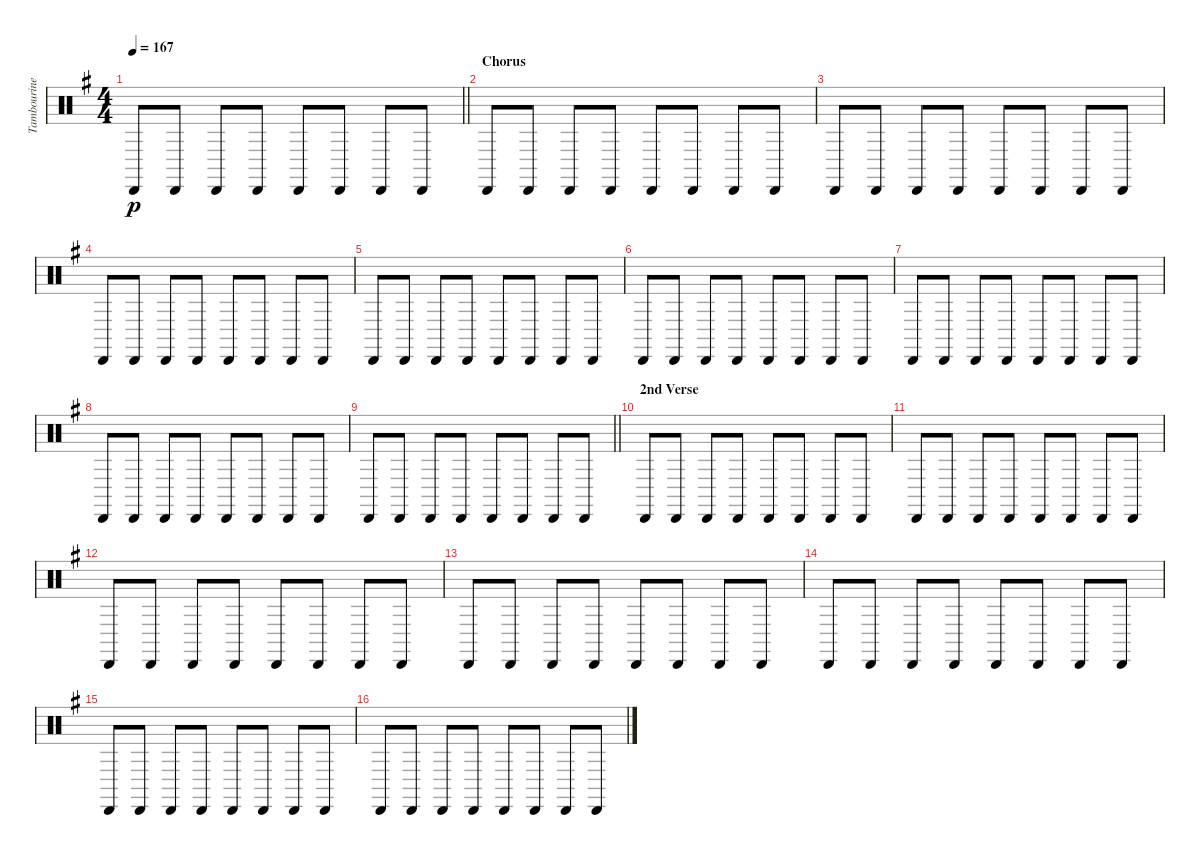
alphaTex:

\track ("Tambourine" "Tambourine") {instrument percussion}
\staff {score}
\articulation defaults
\ts (4 4)
\tempo 167
\clef neutral
\barLineRight lightlight
\ks eminor "Cabasa (hit)".8{dy p} "Cabasa (hit)".8 "Cabasa (hit)".8 "Cabasa (hit)".8 "Cabasa (hit)".8 "Cabasa (hit)".8 "Cabasa (hit)".8 "Cabasa (hit)".8
|
\section ("" "Chorus")
"Cabasa (hit)".8 "Cabasa (hit)".8 "Cabasa (hit)".8 "Cabasa (hit)".8 "Cabasa (hit)".8 "Cabasa (hit)".8 "Cabasa (hit)".8 "Cabasa (hit)".8 |
"Cabasa (hit)".8 "Cabasa (hit)".8 "Cabasa (hit)".8 "Cabasa (hit)".8 "Cabasa (hit)".8 "Cabasa (hit)".8 "Cabasa (hit)".8 "Cabasa (hit)".8 |
"Cabasa (hit)".8 "Cabasa (hit)".8 "Cabasa (hit)".8 "Cabasa (hit)".8 "Cabasa (hit)".8 "Cabasa (hit)".8 "Cabasa (hit)".8 "Cabasa (hit)".8 |
"Cabasa (hit)".8 "Cabasa (hit)".8 "Cabasa (hit)".8 "Cabasa (hit)".8 "Cabasa (hit)".8 "Cabasa (hit)".8 "Cabasa (hit)".8 "Cabasa (hit)".8 |
"Cabasa (hit)".8 "Cabasa (hit)".8 "Cabasa (hit)".8 "Cabasa (hit)".8 "Cabasa (hit)".8 "Cabasa (hit)".8 "Cabasa (hit)".8 "Cabasa (hit)".8 |
"Cabasa (hit)".8 "Cabasa (hit)".8 "Cabasa (hit)".8 "Cabasa (hit)".8 "Cabasa (hit)".8 "Cabasa (hit)".8 "Cabasa (hit)".8 "Cabasa (hit)".8 |
"Cabasa (hit)".8 "Cabasa (hit)".8 "Cabasa (hit)".8 "Cabasa (hit)".8 "Cabasa (hit)".8 "Cabasa (hit)".8 "Cabasa (hit)".8 "Cabasa (hit)".8 |
\barLineRight lightlight "Cabasa (hit)".8 "Cabasa (hit)".8 "Cabasa (hit)".8 "Cabasa (hit)".8 "Cabasa (hit)".8 "Cabasa (hit)".8 "Cabasa (hit)".8 "Cabasa (hit)".8
|
\section ("" "2nd Verse")
"Cabasa (hit)".8 "Cabasa (hit)".8 "Cabasa (hit)".8 "Cabasa (hit)".8 "Cabasa (hit)".8 "Cabasa (hit)".8 "Cabasa (hit)".8 "Cabasa (hit)".8 |
"Cabasa (hit)".8 "Cabasa (hit)".8 "Cabasa (hit)".8 "Cabasa (hit)".8 "Cabasa (hit)".8 "Cabasa (hit)".8 "Cabasa (hit)".8 "Cabasa (hit)".8 |
"Cabasa (hit)".8 "Cabasa (hit)".8 "Cabasa (hit)".8 "Cabasa (hit)".8 "Cabasa (hit)".8 "Cabasa (hit)".8 "Cabasa (hit)".8 "Cabasa (hit)".8 |
"Cabasa (hit)".8 "Cabasa (hit)".8 "Cabasa (hit)".8 "Cabasa (hit)".8 "Cabasa (hit)".8 "Cabasa (hit)".8 "Cabasa (hit)".8 "Cabasa (hit)".8 |
"Cabasa (hit)".8 "Cabasa (hit)".8 "Cabasa (hit)".8 "Cabasa (hit)".8 "Cabasa (hit)".8 "Cabasa (hit)".8 "Cabasa (hit)".8 "Cabasa (hit)".8 |
"Cabasa (hit)".8 "Cabasa (hit)".8 "Cabasa (hit)".8 "Cabasa (hit)".8 "Cabasa (hit)".8 "Cabasa (hit)".8 "Cabasa (hit)".8 "Cabasa (hit)".8 |
"Cabasa (hit)".8 "Cabasa (hit)".8 "Cabasa (hit)".8 "Cabasa (hit)".8 "Cabasa (hit)".8 "Cabasa (hit)".8 "Cabasa (hit)".8 "Cabasa (hit)".8
